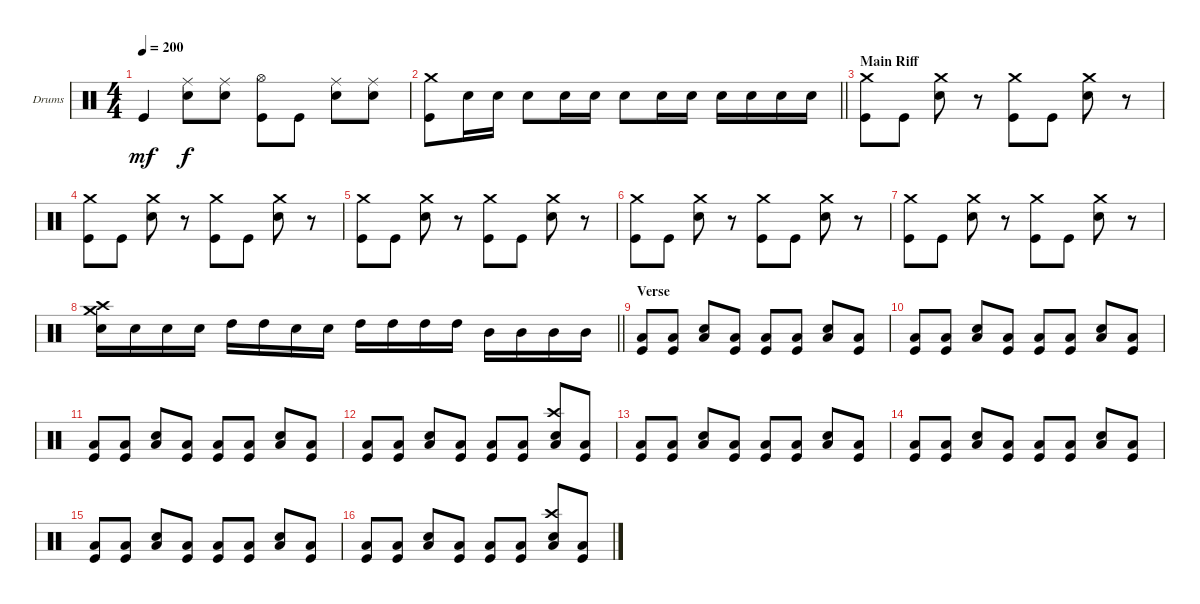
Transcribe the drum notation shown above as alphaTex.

\bracketExtendMode groupsimilarinstruments
\firstSystemTrackNameOrientation horizontal
\otherSystemsTrackNameOrientation horizontal
\track ("Drumkit" "Drums") {instrument percussion}
\staff {score}
\articulation defaults
\ts (4 4)
\tempo 200
\clef neutral
\ks c "Kick (hit)".4{dy mf}
("Ride (middle)" "Snare (hit) 2").8{dy f} ("Ride (middle)" "Snare (hit) 2").8 ("Hi-Hat (open)" "Kick (hit)").8 "Kick (hit)".8 ("Ride (middle)" "Snare (hit) 2").8 ("Ride (middle)" "Snare (hit) 2").8 |
\barLineRight lightlight
("Crash medium (hit)" "Kick (hit)").8 "Snare (hit) 2".16 "Snare (hit) 2".16 "Snare (hit) 2".8 "Snare (hit) 2".16 "Snare (hit) 2".16 "Snare (hit) 2".8 "Snare (hit) 2".16 "Snare (hit) 2".16 "Snare (hit) 2".16 "Snare (hit) 2".16 "Snare (hit) 2".16 "Snare (hit) 2".16 |
\section ("" "Main Riff")
("Crash medium (hit)" "Kick (hit)").8 "Kick (hit)".8 ("Crash medium (hit)" "Snare (hit) 2").8 r.8 ("Crash medium (hit)" "Kick (hit)").8 "Kick (hit)".8 ("Crash medium (hit)" "Snare (hit) 2").8 r.8 |
("Crash medium (hit)" "Kick (hit)").8 "Kick (hit)".8 ("Crash medium (hit)" "Snare (hit) 2").8 r.8 ("Crash medium (hit)" "Kick (hit)").8 "Kick (hit)".8 ("Crash medium (hit)" "Snare (hit) 2").8 r.8 |
("Crash medium (hit)" "Kick (hit)").8 "Kick (hit)".8 ("Crash medium (hit)" "Snare (hit) 2").8 r.8 ("Crash medium (hit)" "Kick (hit)").8 "Kick (hit)".8 ("Crash medium (hit)" "Snare (hit) 2").8 r.8 |
("Crash medium (hit)" "Kick (hit)").8 "Kick (hit)".8 ("Crash medium (hit)" "Snare (hit) 2").8 r.8 ("Crash medium (hit)" "Kick (hit)").8 "Kick (hit)".8 ("Crash medium (hit)" "Snare (hit) 2").8 r.8 |
("Crash medium (hit)" "Kick (hit)").8 "Kick (hit)".8 ("Crash medium (hit)" "Snare (hit) 2").8 r.8 ("Crash medium (hit)" "Kick (hit)").8 "Kick (hit)".8 ("Crash medium (hit)" "Snare (hit) 2").8 r.8 |
\barLineRight lightlight
("Crash medium (hit)" "Crash high (hit)" "Snare (hit) 2").16 "Snare (hit) 2".16 "Snare (hit) 2".16 "Snare (hit) 2".16 "High Tom (hit)".16 "High Tom (hit)".16 "Snare (hit) 2".16 "Snare (hit) 2".16 "High Tom (hit)".16 "High Tom (hit)".16 "High Tom (hit)".16 "High Tom (hit)".16 "Mid Tom (hit)".16 "Mid Tom (hit)".16 "Mid Tom (hit)".16 "Mid Tom (hit)".16 |
\section ("" "Verse")
("Low Tom (hit)" "Kick (hit)").8 ("Kick (hit)" "Low Tom (hit)").8 ("Snare (hit) 2" "Low Tom (hit)").8 ("Kick (hit)" "Low Tom (hit)").8 ("Kick (hit)" "Low Tom (hit)").8 ("Kick (hit)" "Low Tom (hit)").8 ("Snare (hit) 2" "Low Tom (hit)").8 ("Kick (hit)" "Low Tom (hit)").8 |
("Low Tom (hit)" "Kick (hit)").8 ("Kick (hit)" "Low Tom (hit)").8 ("Snare (hit) 2" "Low Tom (hit)").8 ("Kick (hit)" "Low Tom (hit)").8 ("Kick (hit)" "Low Tom (hit)").8 ("Kick (hit)" "Low Tom (hit)").8 ("Snare (hit) 2" "Low Tom (hit)").8 ("Kick (hit)" "Low Tom (hit)").8 |
("Low Tom (hit)" "Kick (hit)").8 ("Kick (hit)" "Low Tom (hit)").8 ("Snare (hit) 2" "Low Tom (hit)").8 ("Kick (hit)" "Low Tom (hit)").8 ("Kick (hit)" "Low Tom (hit)").8 ("Kick (hit)" "Low Tom (hit)").8 ("Snare (hit) 2" "Low Tom (hit)").8 ("Kick (hit)" "Low Tom (hit)").8 |
("Low Tom (hit)" "Kick (hit)").8 ("Kick (hit)" "Low Tom (hit)").8 ("Snare (hit) 2" "Low Tom (hit)").8 ("Kick (hit)" "Low Tom (hit)").8 ("Kick (hit)" "Low Tom (hit)").8 ("Kick (hit)" "Low Tom (hit)").8 ("Snare (hit) 2" "Low Tom (hit)" "Crash high (hit)").8 ("Kick (hit)" "Low Tom (hit)").8 |
("Low Tom (hit)" "Kick (hit)").8 ("Kick (hit)" "Low Tom (hit)").8 ("Snare (hit) 2" "Low Tom (hit)").8 ("Kick (hit)" "Low Tom (hit)").8 ("Kick (hit)" "Low Tom (hit)").8 ("Kick (hit)" "Low Tom (hit)").8 ("Snare (hit) 2" "Low Tom (hit)").8 ("Kick (hit)" "Low Tom (hit)").8 |
("Low Tom (hit)" "Kick (hit)").8 ("Kick (hit)" "Low Tom (hit)").8 ("Snare (hit) 2" "Low Tom (hit)").8 ("Kick (hit)" "Low Tom (hit)").8 ("Kick (hit)" "Low Tom (hit)").8 ("Kick (hit)" "Low Tom (hit)").8 ("Snare (hit) 2" "Low Tom (hit)").8 ("Kick (hit)" "Low Tom (hit)").8 |
("Low Tom (hit)" "Kick (hit)").8 ("Kick (hit)" "Low Tom (hit)").8 ("Snare (hit) 2" "Low Tom (hit)").8 ("Kick (hit)" "Low Tom (hit)").8 ("Kick (hit)" "Low Tom (hit)").8 ("Kick (hit)" "Low Tom (hit)").8 ("Snare (hit) 2" "Low Tom (hit)").8 ("Kick (hit)" "Low Tom (hit)").8 |
("Low Tom (hit)" "Kick (hit)").8 ("Kick (hit)" "Low Tom (hit)").8 ("Snare (hit) 2" "Low Tom (hit)").8 ("Kick (hit)" "Low Tom (hit)").8 ("Kick (hit)" "Low Tom (hit)").8 ("Kick (hit)" "Low Tom (hit)").8 ("Snare (hit) 2" "Low Tom (hit)" "Crash high (hit)").8 ("Kick (hit)" "Low Tom (hit)").8
